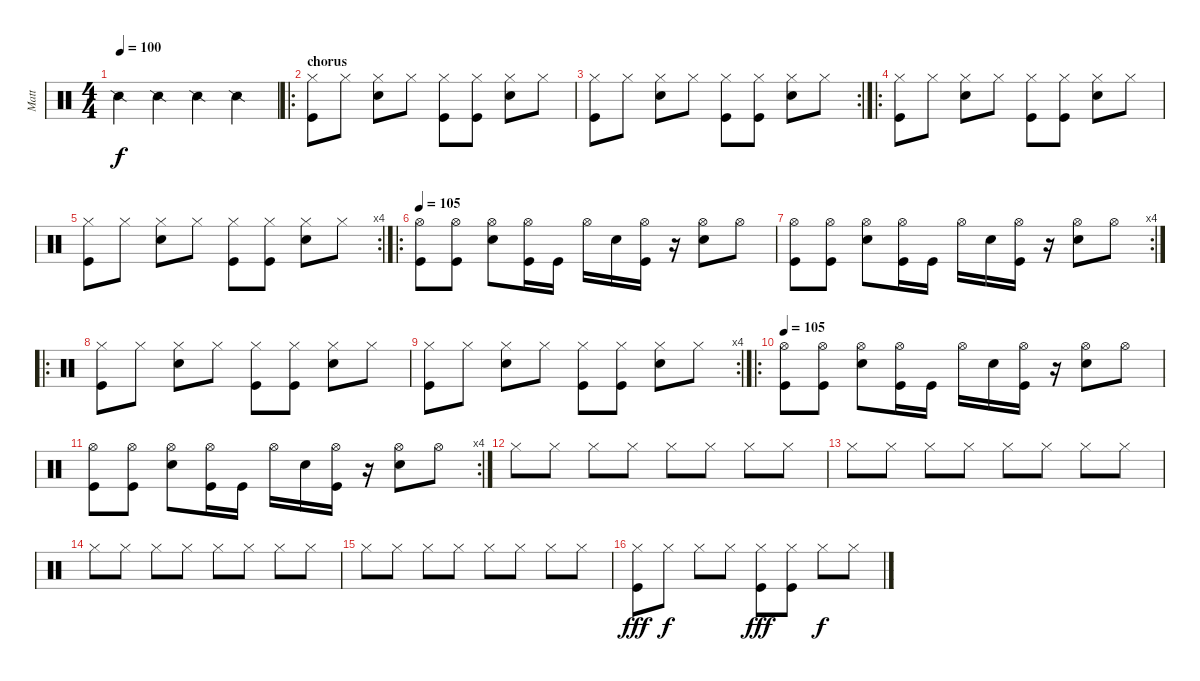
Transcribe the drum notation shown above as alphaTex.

\track ("Matt" "Matt") {instrument percussion}
\staff {score}
\articulation defaults
\ts (4 4)
\tempo 100
\clef neutral
\ks c "Snare (side stick) 2".4{dy f} "Snare (side stick) 2".4 "Snare (side stick) 2".4 "Snare (side stick) 2".4
|
\ro
\section ("" "chorus")
("Hi-Hat (closed)" "Kick (hit)").8 "Hi-Hat (closed)".8 ("Hi-Hat (closed)" "Snare (hit) 2").8 "Hi-Hat (closed)".8 ("Hi-Hat (closed)" "Kick (hit)").8 ("Hi-Hat (closed)" "Kick (hit)").8 ("Hi-Hat (closed)" "Snare (hit) 2").8 "Hi-Hat (closed)".8 |
\rc 2
("Hi-Hat (closed)" "Kick (hit)").8 "Hi-Hat (closed)".8 ("Hi-Hat (closed)" "Snare (hit) 2").8 "Hi-Hat (closed)".8 ("Hi-Hat (closed)" "Kick (hit)").8 ("Hi-Hat (closed)" "Kick (hit)").8 ("Hi-Hat (closed)" "Snare (hit) 2").8 "Hi-Hat (closed)".8 |
\ro
("Hi-Hat (closed)" "Kick (hit)").8 "Hi-Hat (closed)".8 ("Hi-Hat (closed)" "Snare (hit) 2").8 "Hi-Hat (closed)".8 ("Hi-Hat (closed)" "Kick (hit)").8 ("Hi-Hat (closed)" "Kick (hit)").8 ("Hi-Hat (closed)" "Snare (hit) 2").8 "Hi-Hat (closed)".8 |
\rc 4
("Hi-Hat (closed)" "Kick (hit)").8 "Hi-Hat (closed)".8 ("Hi-Hat (closed)" "Snare (hit) 2").8 "Hi-Hat (closed)".8 ("Hi-Hat (closed)" "Kick (hit)").8 ("Hi-Hat (closed)" "Kick (hit)").8 ("Hi-Hat (closed)" "Snare (hit) 2").8 "Hi-Hat (closed)".8 |
\ro
\tempo 105
("Hi-Hat (open)" "Kick (hit)").8 ("Hi-Hat (open)" "Kick (hit)").8 ("Hi-Hat (open)" "Snare (hit) 2").8 ("Hi-Hat (open)" "Kick (hit)").16 "Kick (hit)".16 "Hi-Hat (open)".16 "Snare (hit) 2".16 ("Hi-Hat (open)" "Kick (hit)").16 r.16 ("Hi-Hat (open)" "Snare (hit) 2").8 "Hi-Hat (open)".8 |
\rc 4
("Hi-Hat (open)" "Kick (hit)").8 ("Hi-Hat (open)" "Kick (hit)").8 ("Hi-Hat (open)" "Snare (hit) 2").8 ("Hi-Hat (open)" "Kick (hit)").16 "Kick (hit)".16 "Hi-Hat (open)".16 "Snare (hit) 2".16 ("Hi-Hat (open)" "Kick (hit)").16 r.16 ("Hi-Hat (open)" "Snare (hit) 2").8 "Hi-Hat (open)".8 |
\ro
("Hi-Hat (closed)" "Kick (hit)").8 "Hi-Hat (closed)".8 ("Hi-Hat (closed)" "Snare (hit) 2").8 "Hi-Hat (closed)".8 ("Hi-Hat (closed)" "Kick (hit)").8 ("Hi-Hat (closed)" "Kick (hit)").8 ("Hi-Hat (closed)" "Snare (hit) 2").8 "Hi-Hat (closed)".8 |
\rc 4
("Hi-Hat (closed)" "Kick (hit)").8 "Hi-Hat (closed)".8 ("Hi-Hat (closed)" "Snare (hit) 2").8 "Hi-Hat (closed)".8 ("Hi-Hat (closed)" "Kick (hit)").8 ("Hi-Hat (closed)" "Kick (hit)").8 ("Hi-Hat (closed)" "Snare (hit) 2").8 "Hi-Hat (closed)".8 |
\ro
\tempo 105
("Hi-Hat (open)" "Kick (hit)").8 ("Hi-Hat (open)" "Kick (hit)").8 ("Hi-Hat (open)" "Snare (hit) 2").8 ("Hi-Hat (open)" "Kick (hit)").16 "Kick (hit)".16 "Hi-Hat (open)".16 "Snare (hit) 2".16 ("Hi-Hat (open)" "Kick (hit)").16 r.16 ("Hi-Hat (open)" "Snare (hit) 2").8 "Hi-Hat (open)".8 |
\rc 4
("Hi-Hat (open)" "Kick (hit)").8 ("Hi-Hat (open)" "Kick (hit)").8 ("Hi-Hat (open)" "Snare (hit) 2").8 ("Hi-Hat (open)" "Kick (hit)").16 "Kick (hit)".16 "Hi-Hat (open)".16 "Snare (hit) 2".16 ("Hi-Hat (open)" "Kick (hit)").16 r.16 ("Hi-Hat (open)" "Snare (hit) 2").8 "Hi-Hat (open)".8 |
"Hi-Hat (closed)".8 "Hi-Hat (closed)".8 "Hi-Hat (closed)".8 "Hi-Hat (closed)".8 "Hi-Hat (closed)".8 "Hi-Hat (closed)".8 "Hi-Hat (closed)".8 "Hi-Hat (closed)".8 |
"Hi-Hat (closed)".8 "Hi-Hat (closed)".8 "Hi-Hat (closed)".8 "Hi-Hat (closed)".8 "Hi-Hat (closed)".8 "Hi-Hat (closed)".8 "Hi-Hat (closed)".8 "Hi-Hat (closed)".8 |
"Hi-Hat (closed)".8 "Hi-Hat (closed)".8 "Hi-Hat (closed)".8 "Hi-Hat (closed)".8 "Hi-Hat (closed)".8 "Hi-Hat (closed)".8 "Hi-Hat (closed)".8 "Hi-Hat (closed)".8 |
"Hi-Hat (closed)".8 "Hi-Hat (closed)".8 "Hi-Hat (closed)".8 "Hi-Hat (closed)".8 "Hi-Hat (closed)".8 "Hi-Hat (closed)".8 "Hi-Hat (closed)".8 "Hi-Hat (closed)".8 |
("Hi-Hat (closed)" "Kick (hit)").8{dy fff} "Hi-Hat (closed)".8{dy f} "Hi-Hat (closed)".8 "Hi-Hat (closed)".8 ("Hi-Hat (closed)" "Kick (hit)").8{dy fff} ("Hi-Hat (closed)" "Kick (hit)").8 "Hi-Hat (closed)".8{dy f} "Hi-Hat (closed)".8
